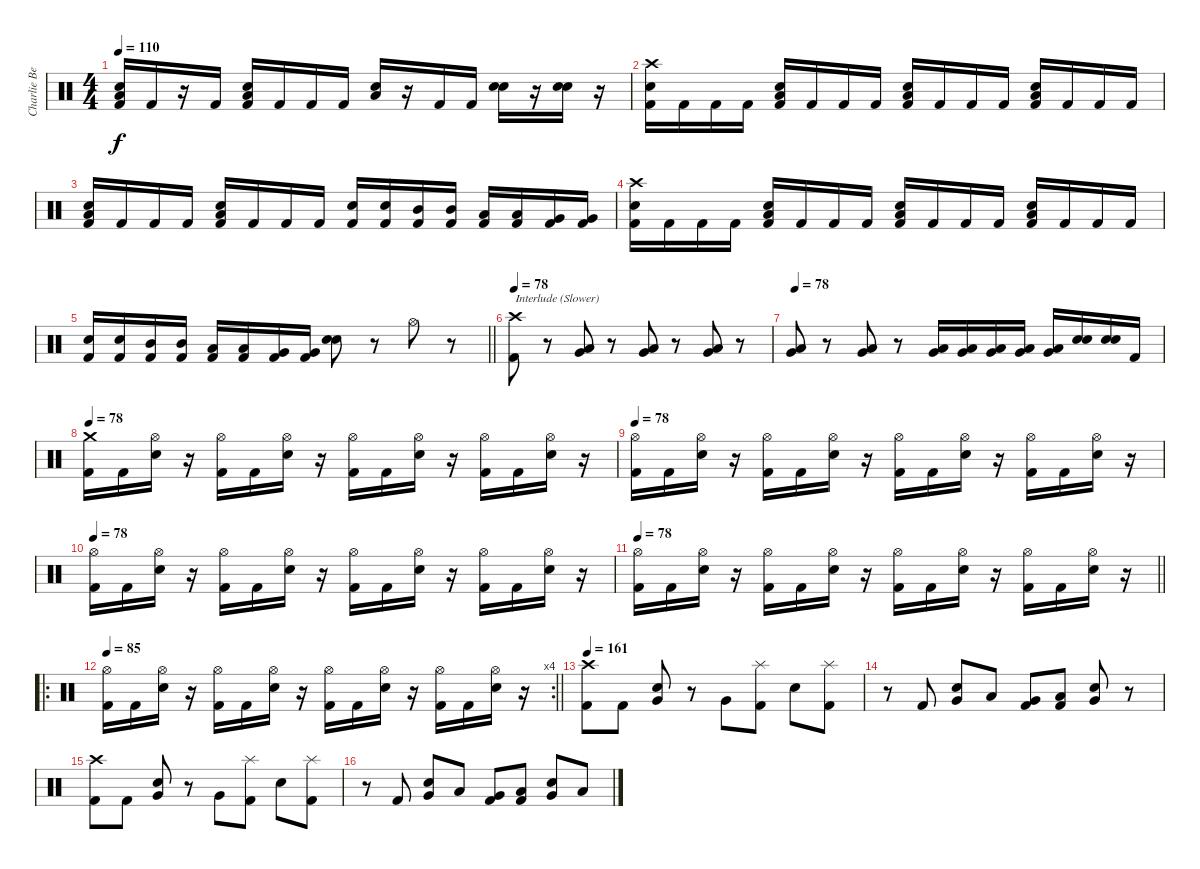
\track ("Charlie Benante" "Charlie Be") {instrument percussion}
\staff {score}
\articulation defaults
\ts (4 4)
\tempo 110
\clef neutral
\ks c
("Low Floor Tom (hit)" "Electric Snare (hit)" "Kick (hit) 2").16{dy f} "Kick (hit) 2".16 r.16 "Kick (hit) 2".16 ("Low Floor Tom (hit)" "Electric Snare (hit)" "Kick (hit) 2").16 "Kick (hit) 2".16 "Kick (hit) 2".16 "Kick (hit) 2".16 ("Low Floor Tom (hit)" "Electric Snare (hit)").16 r.16 "Kick (hit) 2".16 "Kick (hit) 2".16 ("Snare (hit) 2" "Electric Snare (hit)").16 r.16 ("Snare (hit) 2" "Electric Snare (hit)").16 r.16 |
("Crash high (hit)" "Electric Snare (hit)" "Kick (hit) 2").16 "Kick (hit) 2".16 "Kick (hit) 2".16 "Kick (hit) 2".16 ("Low Floor Tom (hit)" "Electric Snare (hit)" "Kick (hit) 2").16 "Kick (hit) 2".16 "Kick (hit) 2".16 "Kick (hit) 2".16 ("Low Floor Tom (hit)" "Electric Snare (hit)" "Kick (hit) 2").16 "Kick (hit) 2".16 "Kick (hit) 2".16 "Kick (hit) 2".16 ("Low Floor Tom (hit)" "Electric Snare (hit)" "Kick (hit) 2").16 "Kick (hit) 2".16 "Kick (hit) 2".16 "Kick (hit) 2".16 |
("Low Floor Tom (hit)" "Electric Snare (hit)" "Kick (hit) 2").16 "Kick (hit) 2".16 "Kick (hit) 2".16 "Kick (hit) 2".16 ("Low Floor Tom (hit)" "Electric Snare (hit)" "Kick (hit) 2").16 "Kick (hit) 2".16 "Kick (hit) 2".16 "Kick (hit) 2".16 ("Electric Snare (hit)" "Kick (hit) 2").16 ("Electric Snare (hit)" "Kick (hit) 2").16 ("Mid Tom (hit)" "Kick (hit) 2").16 ("Mid Tom (hit)" "Kick (hit) 2").16 ("Low Tom (hit)" "Kick (hit) 2").16 ("Low Tom (hit)" "Kick (hit) 2").16 ("Very Low Tom (hit)" "Kick (hit) 2").16 ("Very Low Tom (hit)" "Kick (hit) 2").16 |
("Crash high (hit)" "Electric Snare (hit)" "Kick (hit) 2").16 "Kick (hit) 2".16 "Kick (hit) 2".16 "Kick (hit) 2".16 ("Low Floor Tom (hit)" "Electric Snare (hit)" "Kick (hit) 2").16 "Kick (hit) 2".16 "Kick (hit) 2".16 "Kick (hit) 2".16 ("Low Floor Tom (hit)" "Electric Snare (hit)" "Kick (hit) 2").16 "Kick (hit) 2".16 "Kick (hit) 2".16 "Kick (hit) 2".16 ("Low Floor Tom (hit)" "Electric Snare (hit)" "Kick (hit) 2").16 "Kick (hit) 2".16 "Kick (hit) 2".16 "Kick (hit) 2".16 |
\barLineRight lightlight
("Electric Snare (hit)" "Kick (hit) 2").16 ("Electric Snare (hit)" "Kick (hit) 2").16 ("Mid Tom (hit)" "Kick (hit) 2").16 ("Mid Tom (hit)" "Kick (hit) 2").16 ("Low Tom (hit)" "Kick (hit) 2").16 ("Low Tom (hit)" "Kick (hit) 2").16 ("Very Low Tom (hit)" "Kick (hit) 2").16 ("Very Low Tom (hit)" "Kick (hit) 2").16 ("Snare (hit) 2" "Electric Snare (hit)").8 r.8 "Hi-Hat (open)".8 r.8 |
\tempo 78
("Crash high (hit)" "Kick (hit) 2").8{txt "Interlude (Slower)"} r.8 ("Very Low Tom (hit)" "Low Floor Tom (hit)").8 r.8 ("Very Low Tom (hit)" "Low Floor Tom (hit)").8 r.8 ("Very Low Tom (hit)" "Low Floor Tom (hit)").8 r.8 |
\tempo 78
("Very Low Tom (hit)" "Low Floor Tom (hit)").8 r.8 ("Very Low Tom (hit)" "Low Floor Tom (hit)").8 r.8 ("Very Low Tom (hit)" "Low Floor Tom (hit)").16 ("Very Low Tom (hit)" "Low Floor Tom (hit)").16 ("Very Low Tom (hit)" "Low Floor Tom (hit)").16 ("Very Low Tom (hit)" "Low Floor Tom (hit)").16 ("Very Low Tom (hit)" "Low Floor Tom (hit)").16 ("Snare (hit) 2" "Electric Snare (hit)").16 ("Snare (hit) 2" "Electric Snare (hit)").16 "Kick (hit) 2".16 |
\tempo 78
("Crash medium (hit)" "Kick (hit) 2").16 "Kick (hit) 2".16 ("Hi-Hat (open)" "Electric Snare (hit)").16 r.16 ("Hi-Hat (open)" "Kick (hit) 2").16 "Kick (hit) 2".16 ("Hi-Hat (open)" "Electric Snare (hit)").16 r.16 ("Hi-Hat (open)" "Kick (hit) 2").16 "Kick (hit) 2".16 ("Hi-Hat (open)" "Electric Snare (hit)").16 r.16 ("Hi-Hat (open)" "Kick (hit) 2").16 "Kick (hit) 2".16 ("Hi-Hat (open)" "Electric Snare (hit)").16 r.16 |
\tempo 78
("Hi-Hat (open)" "Kick (hit) 2").16 "Kick (hit) 2".16 ("Hi-Hat (open)" "Electric Snare (hit)").16 r.16 ("Hi-Hat (open)" "Kick (hit) 2").16 "Kick (hit) 2".16 ("Hi-Hat (open)" "Electric Snare (hit)").16 r.16 ("Hi-Hat (open)" "Kick (hit) 2").16 "Kick (hit) 2".16 ("Hi-Hat (open)" "Electric Snare (hit)").16 r.16 ("Hi-Hat (open)" "Kick (hit) 2").16 "Kick (hit) 2".16 ("Hi-Hat (open)" "Electric Snare (hit)").16 r.16 |
\tempo 78
("Hi-Hat (open)" "Kick (hit) 2").16 "Kick (hit) 2".16 ("Hi-Hat (open)" "Electric Snare (hit)").16 r.16 ("Hi-Hat (open)" "Kick (hit) 2").16 "Kick (hit) 2".16 ("Hi-Hat (open)" "Electric Snare (hit)").16 r.16 ("Hi-Hat (open)" "Kick (hit) 2").16 "Kick (hit) 2".16 ("Hi-Hat (open)" "Electric Snare (hit)").16 r.16 ("Hi-Hat (open)" "Kick (hit) 2").16 "Kick (hit) 2".16 ("Hi-Hat (open)" "Electric Snare (hit)").16 r.16 |
\tempo 78
\barLineRight lightlight
("Hi-Hat (open)" "Kick (hit) 2").16 "Kick (hit) 2".16 ("Hi-Hat (open)" "Electric Snare (hit)").16 r.16 ("Hi-Hat (open)" "Kick (hit) 2").16 "Kick (hit) 2".16 ("Hi-Hat (open)" "Electric Snare (hit)").16 r.16 ("Hi-Hat (open)" "Kick (hit) 2").16 "Kick (hit) 2".16 ("Hi-Hat (open)" "Electric Snare (hit)").16 r.16 ("Hi-Hat (open)" "Kick (hit) 2").16 "Kick (hit) 2".16 ("Hi-Hat (open)" "Electric Snare (hit)").16 r.16 |
\ro
\rc 4
\tempo 85
\barLineRight lightlight
("Hi-Hat (open)" "Kick (hit) 2").16 "Kick (hit) 2".16 ("Hi-Hat (open)" "Electric Snare (hit)").16 r.16 ("Hi-Hat (open)" "Kick (hit) 2").16 "Kick (hit) 2".16 ("Hi-Hat (open)" "Electric Snare (hit)").16 r.16 ("Hi-Hat (open)" "Kick (hit) 2").16 "Kick (hit) 2".16 ("Hi-Hat (open)" "Electric Snare (hit)").16 r.16 ("Hi-Hat (open)" "Kick (hit) 2").16 "Kick (hit) 2".16 ("Hi-Hat (open)" "Electric Snare (hit)").16 r.16 |
\tempo 161
("Crash high (hit)" "Kick (hit) 2").8 "Kick (hit) 2".8 ("Very Low Tom (hit)" "Electric Snare (hit)").8 r.8 "Very Low Tom (hit)".8 ("Splash (hit)" "Kick (hit) 2").8 "Electric Snare (hit)".8 ("Splash (hit)" "Kick (hit) 2").8 |
r.8 "Kick (hit) 2".8 ("Very Low Tom (hit)" "Electric Snare (hit)").8 "Low Floor Tom (hit)".8 ("Very Low Tom (hit)" "Kick (hit) 2").8 ("Low Floor Tom (hit)" "Kick (hit) 2").8 ("Very Low Tom (hit)" "Electric Snare (hit)").8 r.8 |
("Crash high (hit)" "Kick (hit) 2").8 "Kick (hit) 2".8 ("Very Low Tom (hit)" "Electric Snare (hit)").8 r.8 "Very Low Tom (hit)".8 ("Splash (hit)" "Kick (hit) 2").8 "Electric Snare (hit)".8 ("Splash (hit)" "Kick (hit) 2").8 |
r.8 "Kick (hit) 2".8 ("Very Low Tom (hit)" "Electric Snare (hit)").8 "Low Floor Tom (hit)".8 ("Very Low Tom (hit)" "Kick (hit) 2").8 ("Low Floor Tom (hit)" "Kick (hit) 2").8 ("Very Low Tom (hit)" "Electric Snare (hit)").8 "Low Floor Tom (hit)".8
